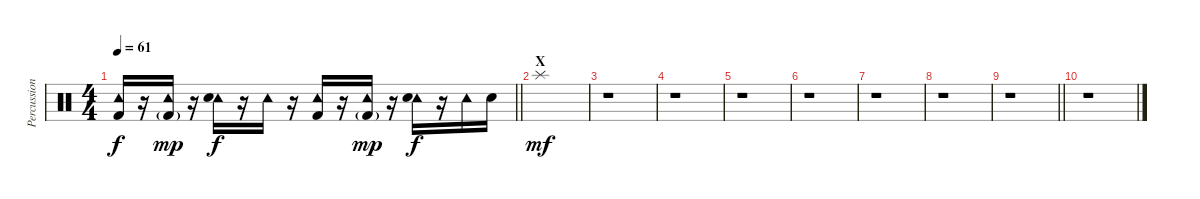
\track ("Percussion" "Percussion") {instrument percussion}
\staff {score}
\articulation defaults
\ts (4 4)
\tempo 61
\clef neutral
\barLineRight lightlight
\ks c
("Tambourine (hit)" "Kick (hit) 2").16{dy f} r.16 ("Tambourine (hit)" "Kick (hit) 2"{g}).16{dy mp} r.16 ("Tambourine (hit)" "Hand Clap (hit)").16{dy f} r.16 "Tambourine (hit)".16 r.16 ("Tambourine (hit)" "Kick (hit) 2").16 r.16 ("Tambourine (hit)" "Kick (hit) 2"{g}).16{dy mp} r.16 ("Tambourine (hit)" "Hand Clap (hit)").16{dy f} r.16 "Tambourine (hit)".16 "Hand Clap (hit)".16 |
\section ("" "X")
"Splash (hit)".1{dy mf} |
r.1 |
r.1 |
r.1 |
r.1 |
r.1 |
r.1 |
\barLineRight lightlight
r.1 |
r.1
